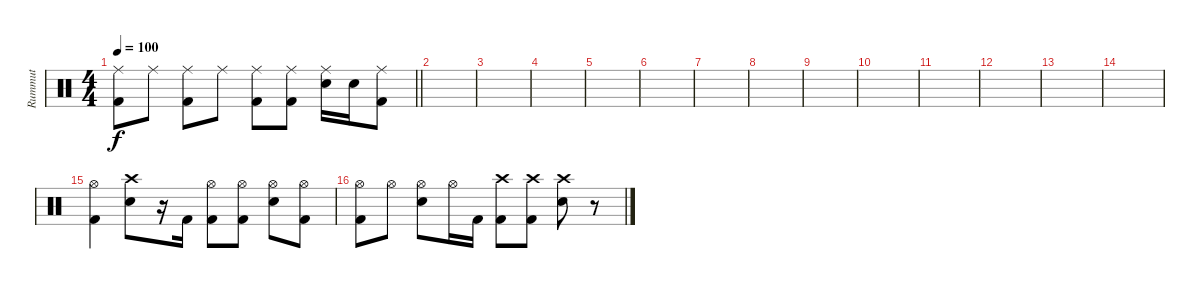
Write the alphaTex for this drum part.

\track ("Rummut" "Rummut") {instrument percussion}
\staff {score}
\articulation defaults
\ts (4 4)
\tempo 100
\clef neutral
\barLineRight lightlight
\ks c
("Ride (middle)" "Kick (hit) 2").8{dy f} "Ride (middle)".8 ("Ride (middle)" "Kick (hit) 2").8 "Ride (middle)".8 ("Ride (middle)" "Kick (hit) 2").8 ("Ride (middle)" "Kick (hit) 2").8 ("Ride (middle)" "Snare (hit) 2").16 "Snare (hit) 2".16 ("Ride (middle)" "Kick (hit) 2").8 |
|
|
|
|
|
|
|
|
|
|
|
|
|
("Hi-Hat (open)" "Kick (hit) 2").4 ("Crash high (hit)" "Snare (hit) 2").8 r.16 "Kick (hit) 2".16 ("Hi-Hat (open)" "Kick (hit) 2").8 ("Hi-Hat (open)" "Kick (hit) 2").8 ("Hi-Hat (open)" "Snare (hit) 2").8 ("Hi-Hat (open)" "Kick (hit) 2").8 |
("Hi-Hat (open)" "Kick (hit) 2").8 "Hi-Hat (open)".8 ("Hi-Hat (open)" "Snare (hit) 2").8 "Hi-Hat (open)".16 "Kick (hit) 2".16 ("Crash high (hit)" "Kick (hit) 2").8 ("Crash high (hit)" "Kick (hit) 2").8 ("Crash high (hit)" "Snare (hit) 2").8 r.8
